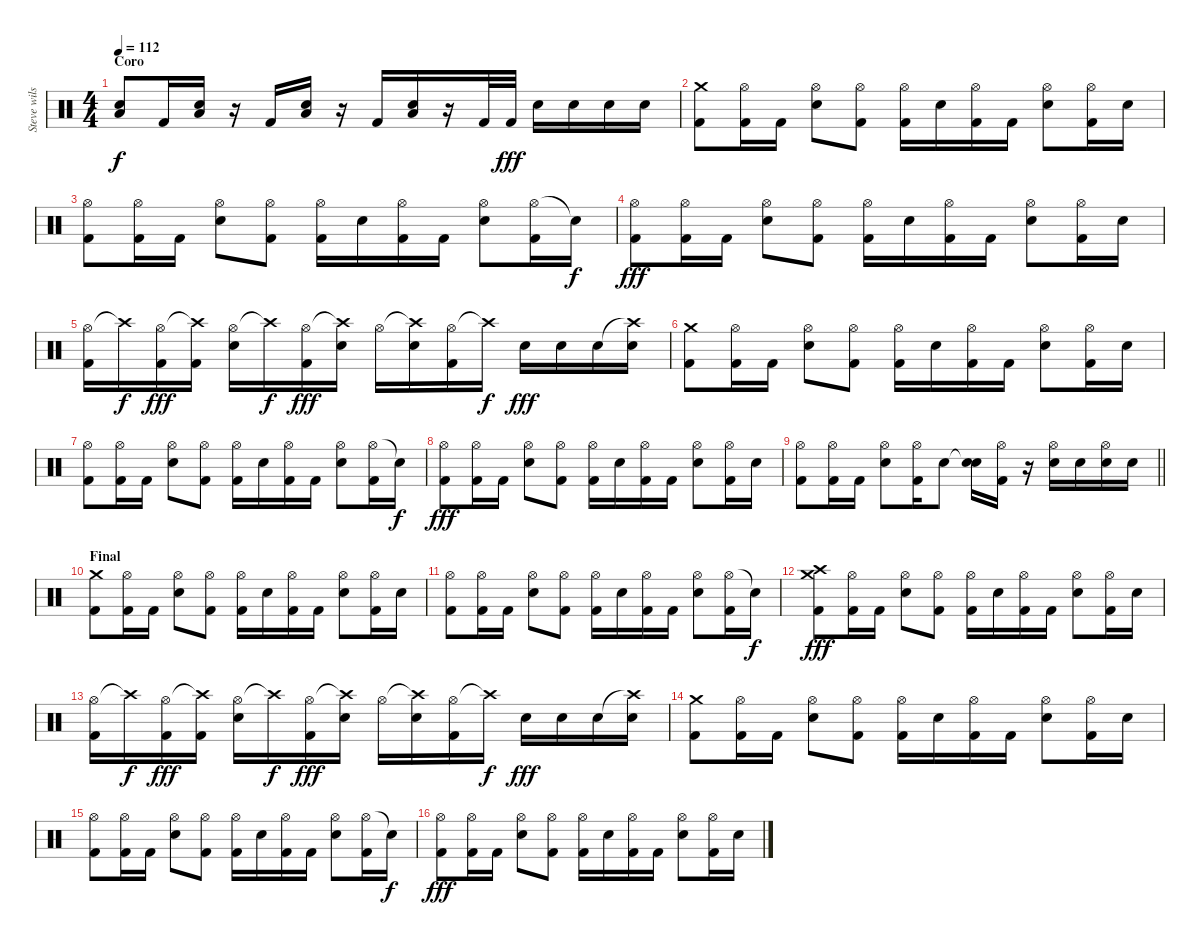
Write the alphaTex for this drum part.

\track ("Steve wilson" "Steve wils") {instrument percussion}
\staff {score}
\articulation defaults
\ts (4 4)
\section ("" "Coro")
\tempo 112
\clef neutral
\ks c
("Low Tom (hit)" "Electric Snare (hit)").8{dy f} "Kick (hit) 2".16 ("Low Tom (hit)" "Electric Snare (hit)").16 r.16 "Kick (hit) 2".16 ("Low Tom (hit)" "Electric Snare (hit)").16 r.16 "Kick (hit) 2".16 ("Low Tom (hit)" "Electric Snare (hit)").16 r.16 "Kick (hit) 2".32 "Kick (hit) 2".32{dy fff} "Electric Snare (hit)".16 "Electric Snare (hit)".16 "Electric Snare (hit)".16 "Electric Snare (hit)".16 |
("Crash medium (hit)" "Kick (hit) 2").8 ("Hi-Hat (open)" "Kick (hit) 2").16 "Kick (hit) 2".16 ("Hi-Hat (open)" "Electric Snare (hit)").8 ("Hi-Hat (open)" "Kick (hit) 2").8 ("Hi-Hat (open)" "Kick (hit) 2").16 "Electric Snare (hit)".16 ("Hi-Hat (open)" "Kick (hit) 2").16 "Kick (hit) 2".16 ("Hi-Hat (open)" "Electric Snare (hit)").8 ("Hi-Hat (open)" "Kick (hit) 2").16 "Electric Snare (hit)".16 |
("Hi-Hat (open)" "Kick (hit) 2").8 ("Hi-Hat (open)" "Kick (hit) 2").16 "Kick (hit) 2".16 ("Hi-Hat (open)" "Electric Snare (hit)").8 ("Hi-Hat (open)" "Kick (hit) 2").8 ("Hi-Hat (open)" "Kick (hit) 2").16 "Electric Snare (hit)".16 ("Hi-Hat (open)" "Kick (hit) 2").16 "Kick (hit) 2".16 ("Hi-Hat (open)" "Electric Snare (hit)").8 ("Hi-Hat (open)" "Kick (hit) 2").16 "Snare (hit)"{t}.16{dy f} |
("Hi-Hat (open)" "Kick (hit) 2").8{dy fff} ("Hi-Hat (open)" "Kick (hit) 2").16 "Kick (hit) 2".16 ("Hi-Hat (open)" "Electric Snare (hit)").8 ("Hi-Hat (open)" "Kick (hit) 2").8 ("Hi-Hat (open)" "Kick (hit) 2").16 "Electric Snare (hit)".16 ("Hi-Hat (open)" "Kick (hit) 2").16 "Kick (hit) 2".16 ("Hi-Hat (open)" "Electric Snare (hit)").8 ("Hi-Hat (open)" "Kick (hit) 2").16 "Electric Snare (hit)".16 |
("Hi-Hat (open)" "Kick (hit) 2").16 "Crash high (hit)"{t}.16{dy f} ("Hi-Hat (open)" "Kick (hit) 2").16{dy fff} ("Crash high (hit)"{t} "Kick (hit) 2").16 ("Hi-Hat (open)" "Electric Snare (hit)").16 "Crash high (hit)"{t}.16{dy f} ("Hi-Hat (open)" "Kick (hit) 2").16{dy fff} ("Crash high (hit)"{t} "Electric Snare (hit)").16 "Hi-Hat (open)".16 ("Crash high (hit)"{t} "Electric Snare (hit)").16 ("Hi-Hat (open)" "Kick (hit) 2").16 "Crash high (hit)"{t}.16{dy f} "Electric Snare (hit)".16{dy fff} "Electric Snare (hit)".16 "Electric Snare (hit)".16 ("Crash high (hit)"{t} "Electric Snare (hit)").16 |
("Crash medium (hit)" "Kick (hit) 2").8 ("Hi-Hat (open)" "Kick (hit) 2").16 "Kick (hit) 2".16 ("Hi-Hat (open)" "Electric Snare (hit)").8 ("Hi-Hat (open)" "Kick (hit) 2").8 ("Hi-Hat (open)" "Kick (hit) 2").16 "Electric Snare (hit)".16 ("Hi-Hat (open)" "Kick (hit) 2").16 "Kick (hit) 2".16 ("Hi-Hat (open)" "Electric Snare (hit)").8 ("Hi-Hat (open)" "Kick (hit) 2").16 "Electric Snare (hit)".16 |
("Hi-Hat (open)" "Kick (hit) 2").8 ("Hi-Hat (open)" "Kick (hit) 2").16 "Kick (hit) 2".16 ("Hi-Hat (open)" "Electric Snare (hit)").8 ("Hi-Hat (open)" "Kick (hit) 2").8 ("Hi-Hat (open)" "Kick (hit) 2").16 "Electric Snare (hit)".16 ("Hi-Hat (open)" "Kick (hit) 2").16 "Kick (hit) 2".16 ("Hi-Hat (open)" "Electric Snare (hit)").8 ("Hi-Hat (open)" "Kick (hit) 2").16 "Snare (hit)"{t}.16{dy f} |
("Hi-Hat (open)" "Kick (hit) 2").8{dy fff} ("Hi-Hat (open)" "Kick (hit) 2").16 "Kick (hit) 2".16 ("Hi-Hat (open)" "Electric Snare (hit)").8 ("Hi-Hat (open)" "Kick (hit) 2").8 ("Hi-Hat (open)" "Kick (hit) 2").16 "Electric Snare (hit)".16 ("Hi-Hat (open)" "Kick (hit) 2").16 "Kick (hit) 2".16 ("Hi-Hat (open)" "Electric Snare (hit)").8 ("Hi-Hat (open)" "Kick (hit) 2").16 "Electric Snare (hit)".16 |
\barLineRight lightlight
("Hi-Hat (open)" "Kick (hit) 2").8 ("Hi-Hat (open)" "Kick (hit) 2").16 "Kick (hit) 2".16 ("Hi-Hat (open)" "Electric Snare (hit)").8 ("Hi-Hat (open)" "Kick (hit) 2").16 "Electric Snare (hit)".8 ("Snare (hit)"{t} "Electric Snare (hit)").16 ("Hi-Hat (open)" "Kick (hit) 2").16 r.16 ("Hi-Hat (open)" "Electric Snare (hit)").16 "Electric Snare (hit)".16 ("Hi-Hat (open)" "Electric Snare (hit)").16 "Electric Snare (hit)".16 |
\section ("" "Final")
("Crash medium (hit)" "Kick (hit) 2").8 ("Hi-Hat (open)" "Kick (hit) 2").16 "Kick (hit) 2".16 ("Hi-Hat (open)" "Electric Snare (hit)").8 ("Hi-Hat (open)" "Kick (hit) 2").8 ("Hi-Hat (open)" "Kick (hit) 2").16 "Electric Snare (hit)".16 ("Hi-Hat (open)" "Kick (hit) 2").16 "Kick (hit) 2".16 ("Hi-Hat (open)" "Electric Snare (hit)").8 ("Hi-Hat (open)" "Kick (hit) 2").16 "Electric Snare (hit)".16 |
("Hi-Hat (open)" "Kick (hit) 2").8 ("Hi-Hat (open)" "Kick (hit) 2").16 "Kick (hit) 2".16 ("Hi-Hat (open)" "Electric Snare (hit)").8 ("Hi-Hat (open)" "Kick (hit) 2").8 ("Hi-Hat (open)" "Kick (hit) 2").16 "Electric Snare (hit)".16 ("Hi-Hat (open)" "Kick (hit) 2").16 "Kick (hit) 2".16 ("Hi-Hat (open)" "Electric Snare (hit)").8 ("Hi-Hat (open)" "Kick (hit) 2").16 "Snare (hit)"{t}.16{dy f} |
("Crash medium (hit)" "Crash high (hit)" "Kick (hit) 2").8{dy fff} ("Hi-Hat (open)" "Kick (hit) 2").16 "Kick (hit) 2".16 ("Hi-Hat (open)" "Electric Snare (hit)").8 ("Hi-Hat (open)" "Kick (hit) 2").8 ("Hi-Hat (open)" "Kick (hit) 2").16 "Electric Snare (hit)".16 ("Hi-Hat (open)" "Kick (hit) 2").16 "Kick (hit) 2".16 ("Hi-Hat (open)" "Electric Snare (hit)").8 ("Hi-Hat (open)" "Kick (hit) 2").16 "Electric Snare (hit)".16 |
("Hi-Hat (open)" "Kick (hit) 2").16 "Crash high (hit)"{t}.16{dy f} ("Hi-Hat (open)" "Kick (hit) 2").16{dy fff} ("Crash high (hit)"{t} "Kick (hit) 2").16 ("Hi-Hat (open)" "Electric Snare (hit)").16 "Crash high (hit)"{t}.16{dy f} ("Hi-Hat (open)" "Kick (hit) 2").16{dy fff} ("Crash high (hit)"{t} "Electric Snare (hit)").16 "Hi-Hat (open)".16 ("Crash high (hit)"{t} "Electric Snare (hit)").16 ("Hi-Hat (open)" "Kick (hit) 2").16 "Crash high (hit)"{t}.16{dy f} "Electric Snare (hit)".16{dy fff} "Electric Snare (hit)".16 "Electric Snare (hit)".16 ("Crash high (hit)"{t} "Electric Snare (hit)").16 |
("Crash medium (hit)" "Kick (hit) 2").8 ("Hi-Hat (open)" "Kick (hit) 2").16 "Kick (hit) 2".16 ("Hi-Hat (open)" "Electric Snare (hit)").8 ("Hi-Hat (open)" "Kick (hit) 2").8 ("Hi-Hat (open)" "Kick (hit) 2").16 "Electric Snare (hit)".16 ("Hi-Hat (open)" "Kick (hit) 2").16 "Kick (hit) 2".16 ("Hi-Hat (open)" "Electric Snare (hit)").8 ("Hi-Hat (open)" "Kick (hit) 2").16 "Electric Snare (hit)".16 |
("Hi-Hat (open)" "Kick (hit) 2").8 ("Hi-Hat (open)" "Kick (hit) 2").16 "Kick (hit) 2".16 ("Hi-Hat (open)" "Electric Snare (hit)").8 ("Hi-Hat (open)" "Kick (hit) 2").8 ("Hi-Hat (open)" "Kick (hit) 2").16 "Electric Snare (hit)".16 ("Hi-Hat (open)" "Kick (hit) 2").16 "Kick (hit) 2".16 ("Hi-Hat (open)" "Electric Snare (hit)").8 ("Hi-Hat (open)" "Kick (hit) 2").16 "Snare (hit)"{t}.16{dy f} |
("Hi-Hat (open)" "Kick (hit) 2").8{dy fff} ("Hi-Hat (open)" "Kick (hit) 2").16 "Kick (hit) 2".16 ("Hi-Hat (open)" "Electric Snare (hit)").8 ("Hi-Hat (open)" "Kick (hit) 2").8 ("Hi-Hat (open)" "Kick (hit) 2").16 "Electric Snare (hit)".16 ("Hi-Hat (open)" "Kick (hit) 2").16 "Kick (hit) 2".16 ("Hi-Hat (open)" "Electric Snare (hit)").8 ("Hi-Hat (open)" "Kick (hit) 2").16 "Electric Snare (hit)".16
